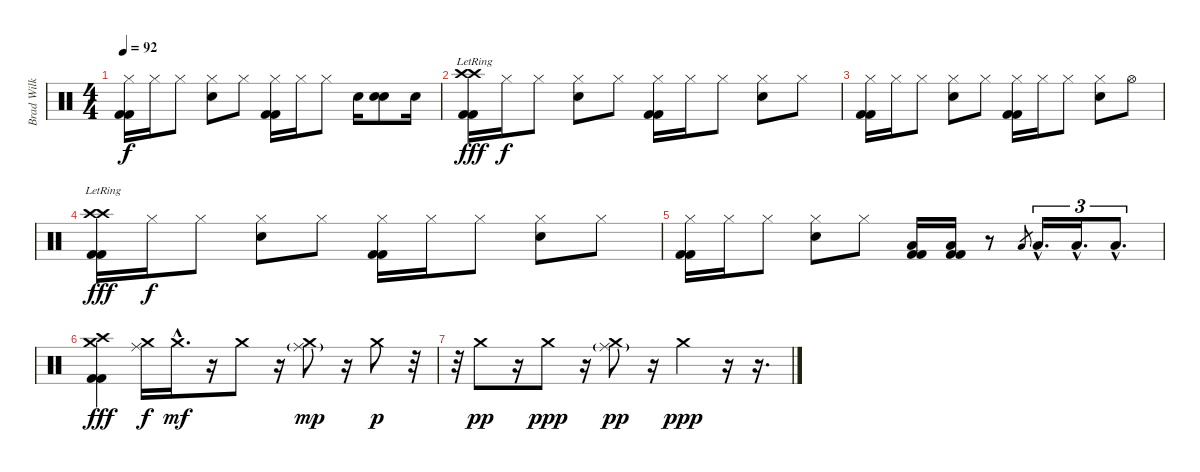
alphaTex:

\track ("Brad Wilk" "Brad Wilk") {instrument percussion}
\staff {score}
\articulation defaults
\ts (4 4)
\tempo 92
\clef neutral
\ks c
("Hi-Hat (closed)" "Kick (hit) 2" "Kick (hit) 2").16{dy f} "Hi-Hat (closed)".16 "Hi-Hat (closed)".8 ("Hi-Hat (closed)" "Snare (hit) 2").8 "Hi-Hat (closed)".8 ("Hi-Hat (closed)" "Kick (hit) 2" "Kick (hit) 2").16 "Hi-Hat (closed)".16 "Hi-Hat (closed)".8 "Electric Snare (hit)".16 ("Electric Snare (hit)" "Electric Snare (hit)").8{bd 120} "Electric Snare (hit)".16 |
("Crash high (hit)"{lr} "Crash high (hit)"{lr} "Kick (hit) 2" "Kick (hit) 2").16{dy fff} "Hi-Hat (closed)".16{dy f} "Hi-Hat (closed)".8 ("Hi-Hat (closed)" "Electric Snare (hit)").8 "Hi-Hat (closed)".8 ("Hi-Hat (closed)" "Kick (hit) 2" "Kick (hit) 2").16 "Hi-Hat (closed)".16 "Hi-Hat (closed)".8 ("Hi-Hat (closed)" "Snare (hit) 2").8 "Hi-Hat (closed)".8 |
("Hi-Hat (closed)" "Kick (hit) 2" "Kick (hit) 2").16 "Hi-Hat (closed)".16 "Hi-Hat (closed)".8 ("Hi-Hat (closed)" "Snare (hit) 2").8 "Hi-Hat (closed)".8 ("Hi-Hat (closed)" "Kick (hit) 2" "Kick (hit) 2").16 "Hi-Hat (closed)".16 "Hi-Hat (closed)".8 ("Hi-Hat (closed)" "Snare (hit) 2").8 "Hi-Hat (open)".8 |
("Crash high (hit)"{lr} "Crash high (hit)"{lr} "Kick (hit) 2" "Kick (hit) 2").16{dy fff} "Hi-Hat (closed)".16{dy f} "Hi-Hat (closed)".8 ("Hi-Hat (closed)" "Electric Snare (hit)").8 "Hi-Hat (closed)".8 ("Hi-Hat (closed)" "Kick (hit) 2" "Kick (hit) 2").16 "Hi-Hat (closed)".16 "Hi-Hat (closed)".8 ("Hi-Hat (closed)" "Snare (hit) 2").8 "Hi-Hat (closed)".8 |
("Hi-Hat (closed)" "Kick (hit) 2" "Kick (hit) 2").16 "Hi-Hat (closed)".16 "Hi-Hat (closed)".8 ("Hi-Hat (closed)" "Snare (hit) 2").8 "Hi-Hat (closed)".8 ("Low Tom (hit)" "Kick (hit) 2" "Kick (hit) 2").16 ("Low Tom (hit)" "Kick (hit) 2" "Kick (hit) 2").16 r.8 "Low Tom (hit)".8{gr} "Low Tom (hit)"{hac}.16{d tu (3 2)} "Low Tom (hit)"{hac}.16{d tu (3 2)} "Low Tom (hit)"{hac}.8{d tu (3 2)} |
("Crash medium (hit)" "Crash high (hit)" "Kick (hit) 2" "Kick (hit) 2").4{dy fff} ("Crash medium (hit)" "Ride (middle)").16{dy f} "Crash medium (hit)"{hac}.16{d dy mf} r.16 "Crash medium (hit)".8 r.16 ("Crash medium (hit)" "Ride (middle)"{g}).8{dy mp} r.16 "Crash medium (hit)".8{dy p} r.32 |
r.32 "Crash medium (hit)".8{dy pp} r.16 "Crash medium (hit)".8{dy ppp} r.16 ("Crash medium (hit)" "Ride (middle)"{g}).8{dy pp} r.16 "Crash medium (hit)".4{dy ppp} r.16 r.16{d}
